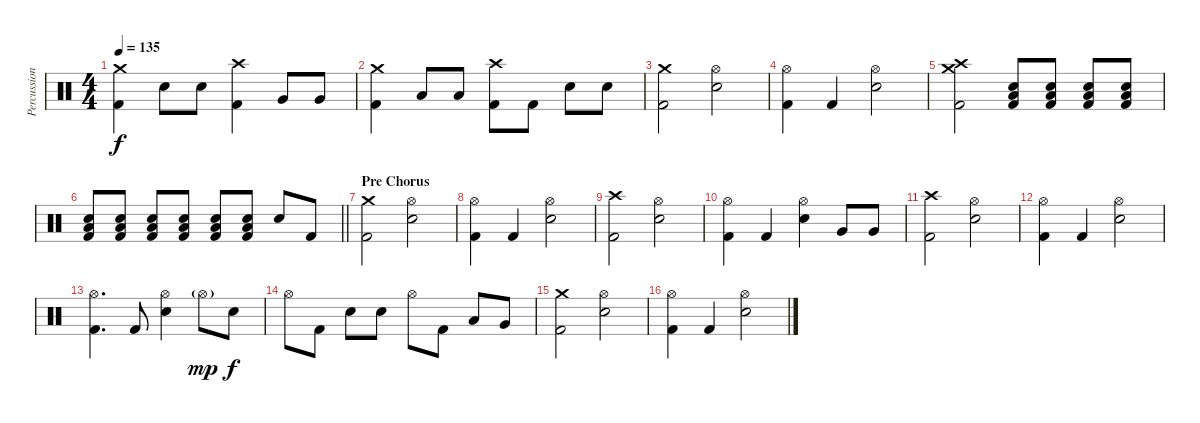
\track ("Percussion" "Percussion") {instrument percussion}
\staff {score}
\articulation defaults
\ts (4 4)
\tempo 135
\clef neutral
\ks c
("Crash medium (hit)" "Kick (hit) 2").4{dy f} "Electric Snare (hit)".8 "Electric Snare (hit)".8 ("Crash high (hit)" "Kick (hit) 2").4 "Very Low Tom (hit)".8 "Very Low Tom (hit)".8 |
("Crash medium (hit)" "Kick (hit) 2").4 "Low Tom (hit)".8 "Low Tom (hit)".8 ("Crash high (hit)" "Kick (hit) 2").8 "Kick (hit) 2".8 "Electric Snare (hit)".8 "Electric Snare (hit)".8 |
("Crash medium (hit)" "Kick (hit) 2").2 ("Hi-Hat (open)" "Electric Snare (hit)").2 |
("Hi-Hat (open)" "Kick (hit) 2").4 "Kick (hit) 2".4 ("Hi-Hat (open)" "Electric Snare (hit)").2 |
("Crash medium (hit)" "Crash high (hit)" "Kick (hit) 2").2 ("Electric Snare (hit)" "Low Tom (hit)" "Kick (hit) 2").8 ("Electric Snare (hit)" "Low Tom (hit)" "Kick (hit) 2").8 ("Electric Snare (hit)" "Low Tom (hit)" "Kick (hit) 2").8 ("Electric Snare (hit)" "Low Tom (hit)" "Kick (hit) 2").8 |
\barLineRight lightlight
("Low Tom (hit)" "Electric Snare (hit)" "Kick (hit) 2").8 ("Low Tom (hit)" "Electric Snare (hit)" "Kick (hit) 2").8 ("Low Tom (hit)" "Electric Snare (hit)" "Kick (hit) 2").8 ("Low Tom (hit)" "Electric Snare (hit)" "Kick (hit) 2").8 ("Low Tom (hit)" "Electric Snare (hit)" "Kick (hit) 2").8 ("Low Tom (hit)" "Electric Snare (hit)" "Kick (hit) 2").8 "Electric Snare (hit)".8 "Kick (hit) 2".8 |
\section ("" "Pre Chorus")
("Crash medium (hit)" "Kick (hit) 2").2 ("Hi-Hat (open)" "Electric Snare (hit)").2 |
("Hi-Hat (open)" "Kick (hit) 2").4 "Kick (hit) 2".4 ("Hi-Hat (open)" "Electric Snare (hit)").2 |
("Crash high (hit)" "Kick (hit) 2").2 ("Hi-Hat (open)" "Electric Snare (hit)").2 |
("Hi-Hat (open)" "Kick (hit) 2").4 "Kick (hit) 2".4 ("Hi-Hat (open)" "Electric Snare (hit)").4 "Very Low Tom (hit)".8 "Very Low Tom (hit)".8 |
("Crash high (hit)" "Kick (hit) 2").2 ("Hi-Hat (open)" "Electric Snare (hit)").2 |
("Hi-Hat (open)" "Kick (hit) 2").4 "Kick (hit) 2".4 ("Hi-Hat (open)" "Electric Snare (hit)").2 |
("Hi-Hat (open)" "Kick (hit) 2").4{d} "Kick (hit) 2".8 ("Hi-Hat (open)" "Electric Snare (hit)").4 "Hi-Hat (open)"{g}.8{dy mp} "Electric Snare (hit)".8{dy f} |
"Hi-Hat (open)".8 "Kick (hit) 2".8 "Electric Snare (hit)".8 "Electric Snare (hit)".8 "Hi-Hat (open)".8 "Kick (hit) 2".8 "Low Tom (hit)".8 "Very Low Tom (hit)".8 |
("Crash medium (hit)" "Kick (hit) 2").2 ("Hi-Hat (open)" "Electric Snare (hit)").2 |
("Hi-Hat (open)" "Kick (hit) 2").4 "Kick (hit) 2".4 ("Hi-Hat (open)" "Electric Snare (hit)").2
